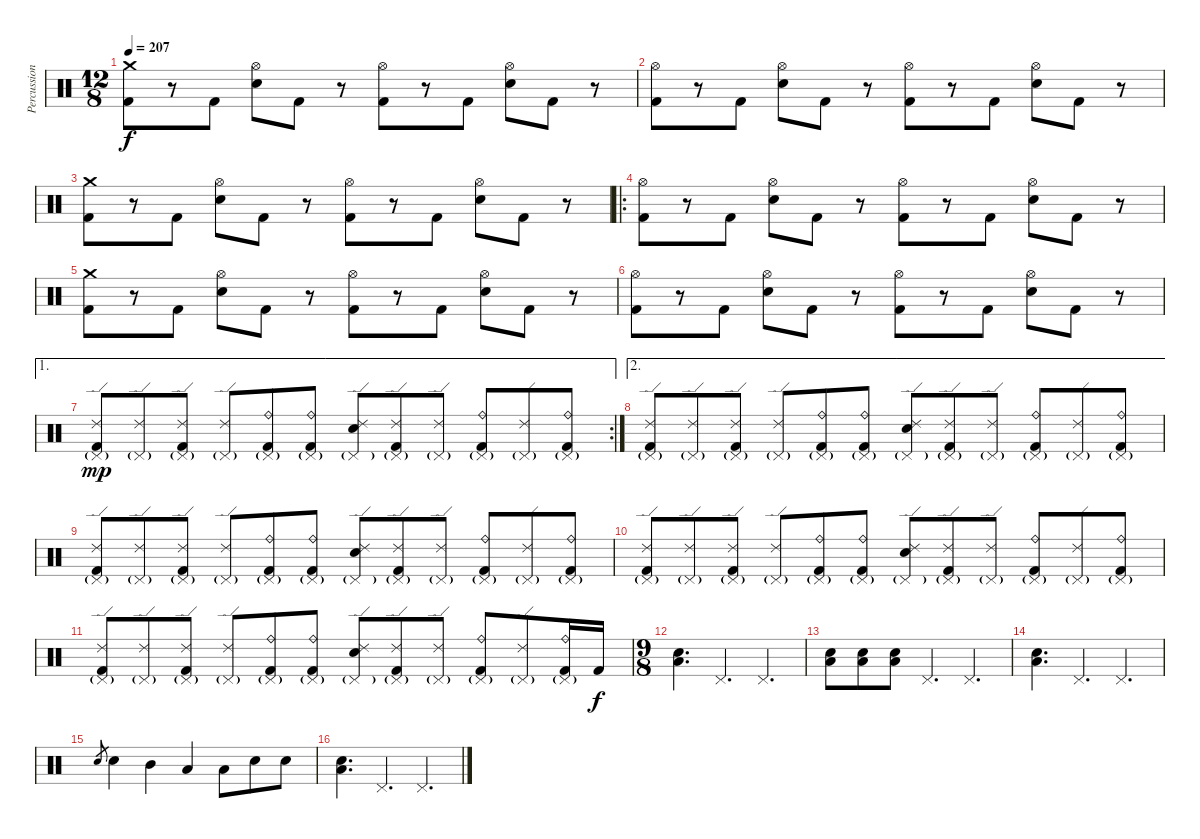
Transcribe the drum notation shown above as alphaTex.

\track ("Percussion" "Percussion") {instrument percussion}
\staff {score}
\articulation defaults
\ts (12 8)
\tempo 207
\clef neutral
\ks c
("Crash medium (hit)" "Kick (hit) 2").8{dy f} r.8 "Kick (hit) 2".8 ("Hi-Hat (open)" "Electric Snare (hit)").8 "Kick (hit) 2".8 r.8 ("Hi-Hat (open)" "Kick (hit) 2").8 r.8 "Kick (hit) 2".8 ("Hi-Hat (open)" "Electric Snare (hit)").8 "Kick (hit) 2".8 r.8 |
("Hi-Hat (open)" "Kick (hit) 2").8 r.8 "Kick (hit) 2".8 ("Hi-Hat (open)" "Electric Snare (hit)").8 "Kick (hit) 2".8 r.8 ("Hi-Hat (open)" "Kick (hit) 2").8 r.8 "Kick (hit) 2".8 ("Hi-Hat (open)" "Electric Snare (hit)").8 "Kick (hit) 2".8 r.8 |
("Crash medium (hit)" "Kick (hit) 2").8 r.8 "Kick (hit) 2".8 ("Hi-Hat (open)" "Electric Snare (hit)").8 "Kick (hit) 2".8 r.8 ("Hi-Hat (open)" "Kick (hit) 2").8 r.8 "Kick (hit) 2".8 ("Hi-Hat (open)" "Electric Snare (hit)").8 "Kick (hit) 2".8 r.8 |
\ro
("Hi-Hat (open)" "Kick (hit) 2").8 r.8 "Kick (hit) 2".8 ("Hi-Hat (open)" "Electric Snare (hit)").8 "Kick (hit) 2".8 r.8 ("Hi-Hat (open)" "Kick (hit) 2").8 r.8 "Kick (hit) 2".8 ("Hi-Hat (open)" "Electric Snare (hit)").8 "Kick (hit) 2".8 r.8 |
("Crash medium (hit)" "Kick (hit) 2").8 r.8 "Kick (hit) 2".8 ("Hi-Hat (open)" "Electric Snare (hit)").8 "Kick (hit) 2".8 r.8 ("Hi-Hat (open)" "Kick (hit) 2").8 r.8 "Kick (hit) 2".8 ("Hi-Hat (open)" "Electric Snare (hit)").8 "Kick (hit) 2".8 r.8 |
("Hi-Hat (open)" "Kick (hit) 2").8 r.8 "Kick (hit) 2".8 ("Hi-Hat (open)" "Electric Snare (hit)").8 "Kick (hit) 2".8 r.8 ("Hi-Hat (open)" "Kick (hit) 2").8 r.8 "Kick (hit) 2".8 ("Hi-Hat (open)" "Electric Snare (hit)").8 "Kick (hit) 2".8 r.8 |
\ae 1
\rc 2
("Ride (edge) 2" "Pedal Hi-Hat (hit)"{g} "Kick (hit) 2").8{dy mp} ("Ride (edge) 2" "Pedal Hi-Hat (hit)"{g}).8 ("Ride (edge) 2" "Pedal Hi-Hat (hit)"{g} "Kick (hit) 2").8 ("Ride (edge) 2" "Pedal Hi-Hat (hit)"{g}).8 ("Ride (bell)" "Pedal Hi-Hat (hit)"{g} "Kick (hit) 2").8 ("Ride (bell)" "Pedal Hi-Hat (hit)"{g} "Kick (hit) 2").8 ("Ride (edge) 2" "Pedal Hi-Hat (hit)"{g} "Electric Snare (hit)").8 ("Ride (edge) 2" "Pedal Hi-Hat (hit)"{g} "Kick (hit) 2").8 ("Ride (edge) 2" "Pedal Hi-Hat (hit)"{g}).8 ("Ride (bell)" "Pedal Hi-Hat (hit)"{g} "Kick (hit) 2").8 ("Ride (edge) 2" "Pedal Hi-Hat (hit)"{g}).8 ("Ride (bell)" "Pedal Hi-Hat (hit)"{g} "Kick (hit) 2").8 |
\ae 2
("Ride (edge) 2" "Pedal Hi-Hat (hit)"{g} "Kick (hit) 2").8 ("Ride (edge) 2" "Pedal Hi-Hat (hit)"{g}).8 ("Ride (edge) 2" "Pedal Hi-Hat (hit)"{g} "Kick (hit) 2").8 ("Ride (edge) 2" "Pedal Hi-Hat (hit)"{g}).8 ("Ride (bell)" "Pedal Hi-Hat (hit)"{g} "Kick (hit) 2").8 ("Ride (bell)" "Pedal Hi-Hat (hit)"{g} "Kick (hit) 2").8 ("Ride (edge) 2" "Pedal Hi-Hat (hit)"{g} "Electric Snare (hit)").8 ("Ride (edge) 2" "Pedal Hi-Hat (hit)"{g} "Kick (hit) 2").8 ("Ride (edge) 2" "Pedal Hi-Hat (hit)"{g}).8 ("Ride (bell)" "Pedal Hi-Hat (hit)"{g} "Kick (hit) 2").8 ("Ride (edge) 2" "Pedal Hi-Hat (hit)"{g}).8 ("Ride (bell)" "Pedal Hi-Hat (hit)"{g} "Kick (hit) 2").8 |
("Ride (edge) 2" "Pedal Hi-Hat (hit)"{g} "Kick (hit) 2").8 ("Ride (edge) 2" "Pedal Hi-Hat (hit)"{g}).8 ("Ride (edge) 2" "Pedal Hi-Hat (hit)"{g} "Kick (hit) 2").8 ("Ride (edge) 2" "Pedal Hi-Hat (hit)"{g}).8 ("Ride (bell)" "Pedal Hi-Hat (hit)"{g} "Kick (hit) 2").8 ("Ride (bell)" "Pedal Hi-Hat (hit)"{g} "Kick (hit) 2").8 ("Ride (edge) 2" "Pedal Hi-Hat (hit)"{g} "Electric Snare (hit)").8 ("Ride (edge) 2" "Pedal Hi-Hat (hit)"{g} "Kick (hit) 2").8 ("Ride (edge) 2" "Pedal Hi-Hat (hit)"{g}).8 ("Ride (bell)" "Pedal Hi-Hat (hit)"{g} "Kick (hit) 2").8 ("Ride (edge) 2" "Pedal Hi-Hat (hit)"{g}).8 ("Ride (bell)" "Pedal Hi-Hat (hit)"{g} "Kick (hit) 2").8 |
("Ride (edge) 2" "Pedal Hi-Hat (hit)"{g} "Kick (hit) 2").8 ("Ride (edge) 2" "Pedal Hi-Hat (hit)"{g}).8 ("Ride (edge) 2" "Pedal Hi-Hat (hit)"{g} "Kick (hit) 2").8 ("Ride (edge) 2" "Pedal Hi-Hat (hit)"{g}).8 ("Ride (bell)" "Pedal Hi-Hat (hit)"{g} "Kick (hit) 2").8 ("Ride (bell)" "Pedal Hi-Hat (hit)"{g} "Kick (hit) 2").8 ("Ride (edge) 2" "Pedal Hi-Hat (hit)"{g} "Electric Snare (hit)").8 ("Ride (edge) 2" "Pedal Hi-Hat (hit)"{g} "Kick (hit) 2").8 ("Ride (edge) 2" "Pedal Hi-Hat (hit)"{g}).8 ("Ride (bell)" "Pedal Hi-Hat (hit)"{g} "Kick (hit) 2").8 ("Ride (edge) 2" "Pedal Hi-Hat (hit)"{g}).8 ("Ride (bell)" "Pedal Hi-Hat (hit)"{g} "Kick (hit) 2").8 |
("Ride (edge) 2" "Pedal Hi-Hat (hit)"{g} "Kick (hit) 2").8 ("Ride (edge) 2" "Pedal Hi-Hat (hit)"{g}).8 ("Ride (edge) 2" "Pedal Hi-Hat (hit)"{g} "Kick (hit) 2").8 ("Ride (edge) 2" "Pedal Hi-Hat (hit)"{g}).8 ("Ride (bell)" "Pedal Hi-Hat (hit)"{g} "Kick (hit) 2").8 ("Ride (bell)" "Pedal Hi-Hat (hit)"{g} "Kick (hit) 2").8 ("Ride (edge) 2" "Pedal Hi-Hat (hit)"{g} "Electric Snare (hit)").8 ("Ride (edge) 2" "Pedal Hi-Hat (hit)"{g} "Kick (hit) 2").8 ("Ride (edge) 2" "Pedal Hi-Hat (hit)"{g}).8 ("Ride (bell)" "Pedal Hi-Hat (hit)"{g} "Kick (hit) 2").8 ("Ride (edge) 2" "Pedal Hi-Hat (hit)"{g}).8 ("Ride (bell)" "Pedal Hi-Hat (hit)"{g} "Kick (hit) 2").16 "Kick (hit) 2".16{dy f} |
\ts (9 8)
("Low Floor Tom (hit)" "Electric Snare (hit)").4{d} "Pedal Hi-Hat (hit)".4{d} "Pedal Hi-Hat (hit)".4{d} |
("Low Floor Tom (hit)" "Electric Snare (hit)").8 ("Low Floor Tom (hit)" "Electric Snare (hit)").8 ("Low Floor Tom (hit)" "Electric Snare (hit)").8 "Pedal Hi-Hat (hit)".4{d} "Pedal Hi-Hat (hit)".4{d} |
("Low Floor Tom (hit)" "Electric Snare (hit)").4{d} "Pedal Hi-Hat (hit)".4{d} "Pedal Hi-Hat (hit)".4{d} |
"Electric Snare (hit)".8{gr} "Electric Snare (hit)".4 "Mid Tom (hit)".4 "Low Tom (hit)".4 "Low Tom (hit)".8 "Electric Snare (hit)".8 "Electric Snare (hit)".8 |
("Low Floor Tom (hit)" "Electric Snare (hit)").4{d} "Pedal Hi-Hat (hit)".4{d} "Pedal Hi-Hat (hit)".4{d}
